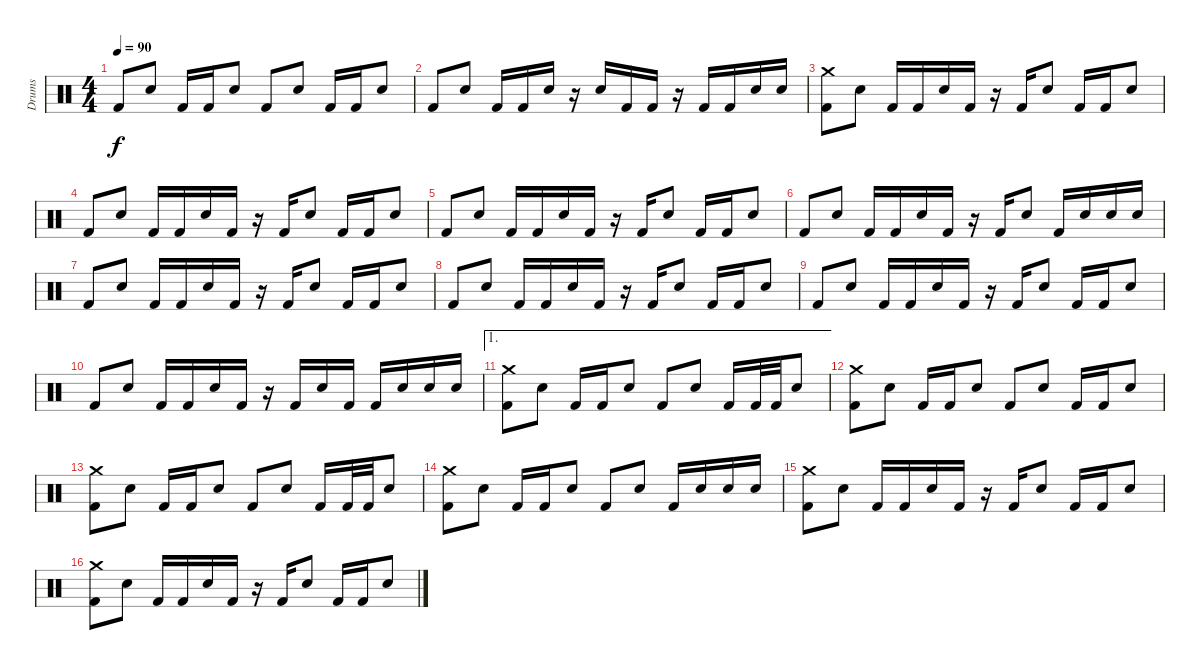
\track ("Drums" "Drums") {instrument percussion}
\staff {score}
\articulation defaults
\ts (4 4)
\tempo 90
\clef neutral
\ks c "Kick (hit) 2".8{dy f} "Snare (hit) 2".8 "Kick (hit) 2".16 "Kick (hit) 2".16 "Snare (hit) 2".8 "Kick (hit) 2".8 "Snare (hit) 2".8 "Kick (hit) 2".16 "Kick (hit) 2".16 "Snare (hit) 2".8
|
"Kick (hit) 2".8 "Snare (hit) 2".8 "Kick (hit) 2".16 "Kick (hit) 2".16 "Snare (hit) 2".16 r.16 "Snare (hit) 2".16 "Kick (hit) 2".16 "Kick (hit) 2".16 r.16 "Kick (hit) 2".16 "Kick (hit) 2".16 "Snare (hit) 2".16 "Snare (hit) 2".16 |
("Crash medium (hit)" "Kick (hit) 2").8 "Snare (hit) 2".8 "Kick (hit) 2".16 "Kick (hit) 2".16 "Snare (hit) 2".16 "Kick (hit) 2".16 r.16 "Kick (hit) 2".16 "Snare (hit) 2".8 "Kick (hit) 2".16 "Kick (hit) 2".16 "Snare (hit) 2".8 |
"Kick (hit) 2".8 "Snare (hit) 2".8 "Kick (hit) 2".16 "Kick (hit) 2".16 "Snare (hit) 2".16 "Kick (hit) 2".16 r.16 "Kick (hit) 2".16 "Snare (hit) 2".8 "Kick (hit) 2".16 "Kick (hit) 2".16 "Snare (hit) 2".8 |
"Kick (hit) 2".8 "Snare (hit) 2".8 "Kick (hit) 2".16 "Kick (hit) 2".16 "Snare (hit) 2".16 "Kick (hit) 2".16 r.16 "Kick (hit) 2".16 "Snare (hit) 2".8 "Kick (hit) 2".16 "Kick (hit) 2".16 "Snare (hit) 2".8 |
"Kick (hit) 2".8 "Snare (hit) 2".8 "Kick (hit) 2".16 "Kick (hit) 2".16 "Snare (hit) 2".16 "Kick (hit) 2".16 r.16 "Kick (hit) 2".16 "Snare (hit) 2".8 "Kick (hit) 2".16 "Snare (hit) 2".16 "Snare (hit) 2".16 "Snare (hit) 2".16 |
"Kick (hit) 2".8 "Snare (hit) 2".8 "Kick (hit) 2".16 "Kick (hit) 2".16 "Snare (hit) 2".16 "Kick (hit) 2".16 r.16 "Kick (hit) 2".16 "Snare (hit) 2".8 "Kick (hit) 2".16 "Kick (hit) 2".16 "Snare (hit) 2".8 |
"Kick (hit) 2".8 "Snare (hit) 2".8 "Kick (hit) 2".16 "Kick (hit) 2".16 "Snare (hit) 2".16 "Kick (hit) 2".16 r.16 "Kick (hit) 2".16 "Snare (hit) 2".8 "Kick (hit) 2".16 "Kick (hit) 2".16 "Snare (hit) 2".8 |
"Kick (hit) 2".8 "Snare (hit) 2".8 "Kick (hit) 2".16 "Kick (hit) 2".16 "Snare (hit) 2".16 "Kick (hit) 2".16 r.16 "Kick (hit) 2".16 "Snare (hit) 2".8 "Kick (hit) 2".16 "Kick (hit) 2".16 "Snare (hit) 2".8 |
"Kick (hit) 2".8 "Snare (hit) 2".8 "Kick (hit) 2".16 "Kick (hit) 2".16 "Snare (hit) 2".16 "Kick (hit) 2".16 r.16 "Kick (hit) 2".16 "Snare (hit) 2".16 "Kick (hit) 2".16 "Kick (hit) 2".16 "Snare (hit) 2".16 "Snare (hit) 2".16 "Snare (hit) 2".16 |
\ae 1
("Crash medium (hit)" "Kick (hit) 2").8 "Snare (hit) 2".8 "Kick (hit) 2".16 "Kick (hit) 2".16 "Snare (hit) 2".8 "Kick (hit) 2".8 "Snare (hit) 2".8 "Kick (hit) 2".16 "Kick (hit) 2".32 "Kick (hit) 2".32 "Snare (hit) 2".8 |
("Crash medium (hit)" "Kick (hit) 2").8 "Snare (hit) 2".8 "Kick (hit) 2".16 "Kick (hit) 2".16 "Snare (hit) 2".8 "Kick (hit) 2".8 "Snare (hit) 2".8 "Kick (hit) 2".16 "Kick (hit) 2".16 "Snare (hit) 2".8 |
("Crash medium (hit)" "Kick (hit) 2").8 "Snare (hit) 2".8 "Kick (hit) 2".16 "Kick (hit) 2".16 "Snare (hit) 2".8 "Kick (hit) 2".8 "Snare (hit) 2".8 "Kick (hit) 2".16 "Kick (hit) 2".32 "Kick (hit) 2".32 "Snare (hit) 2".8 |
("Crash medium (hit)" "Kick (hit) 2").8 "Snare (hit) 2".8 "Kick (hit) 2".16 "Kick (hit) 2".16 "Snare (hit) 2".8 "Kick (hit) 2".8 "Snare (hit) 2".8 "Kick (hit) 2".16 "Snare (hit) 2".16 "Snare (hit) 2".16 "Snare (hit) 2".16 |
("Crash medium (hit)" "Kick (hit) 2").8 "Snare (hit) 2".8 "Kick (hit) 2".16 "Kick (hit) 2".16 "Snare (hit) 2".16 "Kick (hit) 2".16 r.16 "Kick (hit) 2".16 "Snare (hit) 2".8 "Kick (hit) 2".16 "Kick (hit) 2".16 "Snare (hit) 2".8 |
("Crash medium (hit)" "Kick (hit) 2").8 "Snare (hit) 2".8 "Kick (hit) 2".16 "Kick (hit) 2".16 "Snare (hit) 2".16 "Kick (hit) 2".16 r.16 "Kick (hit) 2".16 "Snare (hit) 2".8 "Kick (hit) 2".16 "Kick (hit) 2".16 "Snare (hit) 2".8
